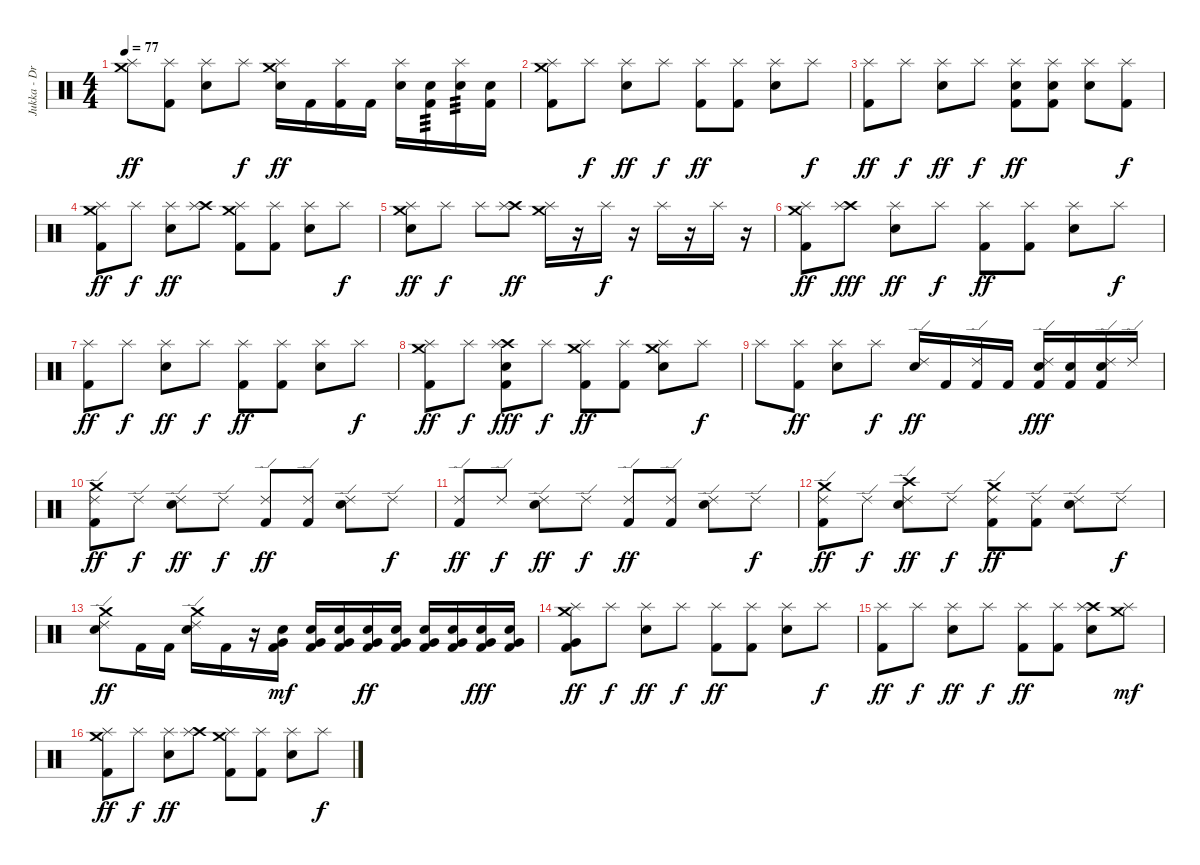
\track ("Jukka - Drums" "Jukka - Dr") {instrument percussion}
\staff {score}
\articulation defaults
\ts (4 4)
\tempo 77
\clef neutral
\ks c
("Crash medium (hit)" "Splash (hit)").8{dy ff} ("Splash (hit)" "Kick (hit) 2").8 ("Splash (hit)" "Electric Snare (hit)").8 "Splash (hit)".8{dy f} ("Crash medium (hit)" "Splash (hit)" "Electric Snare (hit)").16{dy ff} "Kick (hit) 2".16 ("Splash (hit)" "Kick (hit) 2").16 "Kick (hit) 2".16 ("Splash (hit)" "Electric Snare (hit)").16 ("Electric Snare (hit)" "Kick (hit) 2").16{tp 3} ("Splash (hit)" "Electric Snare (hit)").16{tp 3} ("Electric Snare (hit)" "Kick (hit) 2").16 |
("Crash medium (hit)" "Splash (hit)" "Kick (hit) 2").8 "Splash (hit)".8{dy f} ("Splash (hit)" "Electric Snare (hit)").8{dy ff} "Splash (hit)".8{dy f} ("Splash (hit)" "Kick (hit) 2").8{dy ff} ("Splash (hit)" "Kick (hit) 2").8 ("Splash (hit)" "Electric Snare (hit)").8 "Splash (hit)".8{dy f} |
("Splash (hit)" "Kick (hit) 2").8{dy ff} "Splash (hit)".8{dy f} ("Splash (hit)" "Electric Snare (hit)").8{dy ff} "Splash (hit)".8{dy f} ("Splash (hit)" "Electric Snare (hit)" "Kick (hit) 2").8{dy ff} ("Splash (hit)" "Electric Snare (hit)" "Kick (hit) 2").8 ("Splash (hit)" "Electric Snare (hit)").8 ("Splash (hit)" "Kick (hit) 2").8{dy f} |
("Crash medium (hit)" "Splash (hit)" "Kick (hit) 2").8{dy ff} "Splash (hit)".8{dy f} ("Splash (hit)" "Electric Snare (hit)").8{dy ff} ("Crash high (hit)" "Splash (hit)").8 ("Crash medium (hit)" "Splash (hit)" "Kick (hit) 2").8 ("Splash (hit)" "Kick (hit) 2").8 ("Splash (hit)" "Electric Snare (hit)").8 "Splash (hit)".8{dy f} |
("Crash medium (hit)" "Splash (hit)" "Electric Snare (hit)").8{dy ff} "Splash (hit)".8{dy f} "Splash (hit)".8 ("Crash high (hit)" "Splash (hit)").8{dy ff} ("Crash medium (hit)" "Splash (hit)").16 r.16 "Splash (hit)".16{dy f} r.16 "Splash (hit)".16 r.16 "Splash (hit)".16 r.16 |
("Crash medium (hit)" "Splash (hit)" "Kick (hit) 2").8{dy ff} ("Crash high (hit)" "Splash (hit)").8{dy fff} ("Splash (hit)" "Electric Snare (hit)").8{dy ff} "Splash (hit)".8{dy f} ("Splash (hit)" "Kick (hit) 2").8{dy ff} ("Splash (hit)" "Kick (hit) 2").8 ("Splash (hit)" "Electric Snare (hit)").8 "Splash (hit)".8{dy f} |
("Splash (hit)" "Kick (hit) 2").8{dy ff} "Splash (hit)".8{dy f} ("Splash (hit)" "Electric Snare (hit)").8{dy ff} "Splash (hit)".8{dy f} ("Splash (hit)" "Kick (hit) 2").8{dy ff} ("Splash (hit)" "Kick (hit) 2").8 ("Splash (hit)" "Electric Snare (hit)").8 "Splash (hit)".8{dy f} |
("Crash medium (hit)" "Splash (hit)" "Kick (hit) 2").8{dy ff} "Splash (hit)".8{dy f} ("Crash high (hit)" "Splash (hit)" "Electric Snare (hit)" "Kick (hit) 2").8{dy fff} "Splash (hit)".8{dy f} ("Crash medium (hit)" "Splash (hit)" "Kick (hit) 2").8{dy ff} ("Splash (hit)" "Kick (hit) 2").8 ("Crash medium (hit)" "Splash (hit)" "Electric Snare (hit)").8 "Splash (hit)".8{dy f} |
"Splash (hit)".8 ("Splash (hit)" "Kick (hit) 2").8{dy ff} ("Splash (hit)" "Electric Snare (hit)").8 "Splash (hit)".8{dy f} ("Ride (edge) 2" "Electric Snare (hit)").16{dy ff} "Kick (hit) 2".16 ("Ride (edge) 2" "Kick (hit) 2").16 "Kick (hit) 2".16 ("Ride (edge) 2" "Electric Snare (hit)" "Kick (hit) 2").16{dy fff} ("Electric Snare (hit)" "Kick (hit) 2").16 ("Ride (edge) 2" "Electric Snare (hit)" "Kick (hit) 2").16 "Ride (edge) 2".16 |
("Crash medium (hit)" "Ride (edge) 2" "Kick (hit) 2").8{dy ff} "Ride (edge) 2".8{dy f} ("Ride (edge) 2" "Electric Snare (hit)").8{dy ff} "Ride (edge) 2".8{dy f} ("Ride (edge) 2" "Kick (hit) 2").8{dy ff} ("Ride (edge) 2" "Kick (hit) 2").8 ("Ride (edge) 2" "Electric Snare (hit)").8 "Ride (edge) 2".8{dy f} |
("Ride (edge) 2" "Kick (hit) 2").8{dy ff} "Ride (edge) 2".8{dy f} ("Ride (edge) 2" "Electric Snare (hit)").8{dy ff} "Ride (edge) 2".8{dy f} ("Ride (edge) 2" "Kick (hit) 2").8{dy ff} ("Ride (edge) 2" "Kick (hit) 2").8 ("Ride (edge) 2" "Electric Snare (hit)").8 "Ride (edge) 2".8{dy f} |
("Crash medium (hit)" "Ride (edge) 2" "Kick (hit) 2").8{dy ff} "Ride (edge) 2".8{dy f} ("Crash high (hit)" "Ride (edge) 2" "Electric Snare (hit)").8{dy ff} "Ride (edge) 2".8{dy f} ("Crash medium (hit)" "Ride (edge) 2" "Kick (hit) 2").8{dy ff} ("Ride (edge) 2" "Kick (hit) 2").8 ("Ride (edge) 2" "Electric Snare (hit)").8 "Ride (edge) 2".8{dy f} |
("Crash medium (hit)" "Ride (edge) 2" "Electric Snare (hit)").8{dy ff} "Kick (hit) 2".16 "Kick (hit) 2".16 ("Crash medium (hit)" "Ride (edge) 2" "Electric Snare (hit)").16 "Kick (hit) 2".16 r.16 ("Very Low Tom (hit)" "Electric Snare (hit)" "Kick (hit) 2").16{dy mf} ("Very Low Tom (hit)" "Electric Snare (hit)" "Kick (hit) 2").16 ("Very Low Tom (hit)" "Electric Snare (hit)" "Kick (hit) 2").16 ("Very Low Tom (hit)" "Electric Snare (hit)" "Kick (hit) 2").16{dy ff} ("Very Low Tom (hit)" "Electric Snare (hit)" "Kick (hit) 2").16 ("Very Low Tom (hit)" "Electric Snare (hit)" "Kick (hit) 2").16 ("Very Low Tom (hit)" "Electric Snare (hit)" "Kick (hit) 2").16 ("Very Low Tom (hit)" "Electric Snare (hit)" "Kick (hit) 2").16{dy fff} ("Very Low Tom (hit)" "Electric Snare (hit)" "Kick (hit) 2").16 |
("Crash medium (hit)" "Splash (hit)" "Kick (hit) 2" "Very Low Tom (hit)").8{dy ff} "Splash (hit)".8{dy f} ("Splash (hit)" "Electric Snare (hit)").8{dy ff} "Splash (hit)".8{dy f} ("Splash (hit)" "Kick (hit) 2").8{dy ff} ("Splash (hit)" "Kick (hit) 2").8 ("Splash (hit)" "Electric Snare (hit)").8 "Splash (hit)".8{dy f} |
("Splash (hit)" "Kick (hit) 2").8{dy ff} "Splash (hit)".8{dy f} ("Splash (hit)" "Electric Snare (hit)").8{dy ff} "Splash (hit)".8{dy f} ("Splash (hit)" "Kick (hit) 2").8{dy ff} ("Splash (hit)" "Kick (hit) 2").8 ("Crash high (hit)" "Splash (hit)" "Electric Snare (hit)").8 ("Crash medium (hit)" "Splash (hit)").8{dy mf} |
("Crash medium (hit)" "Splash (hit)" "Kick (hit) 2").8{dy ff} "Splash (hit)".8{dy f} ("Splash (hit)" "Electric Snare (hit)").8{dy ff} ("Crash high (hit)" "Splash (hit)").8 ("Crash medium (hit)" "Splash (hit)" "Kick (hit) 2").8 ("Splash (hit)" "Kick (hit) 2").8 ("Splash (hit)" "Electric Snare (hit)").8 "Splash (hit)".8{dy f}
